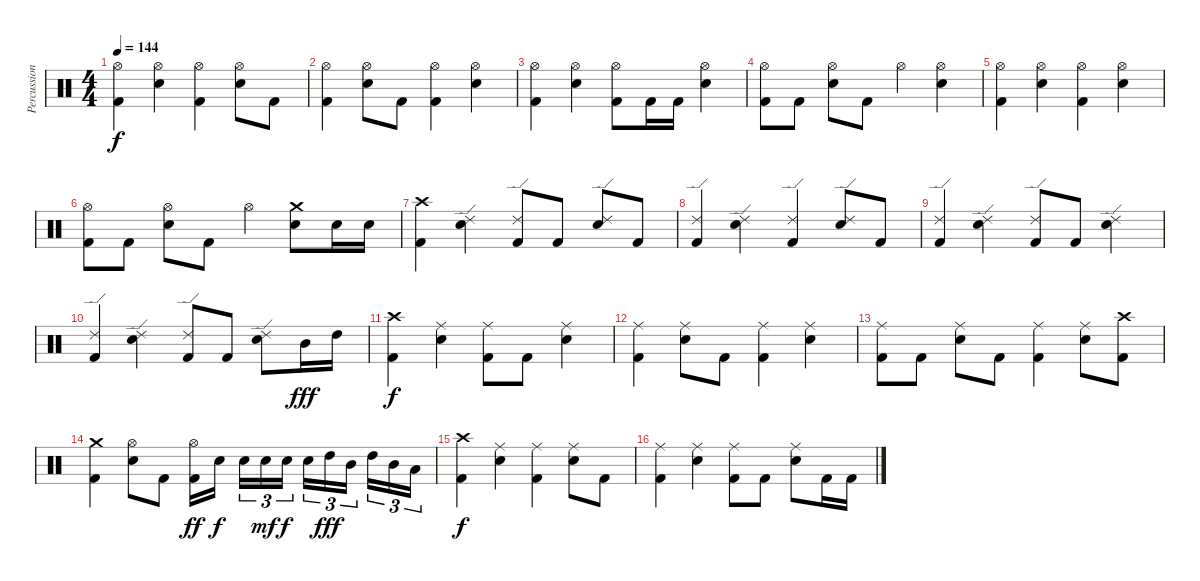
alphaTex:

\track ("Percussion" "Percussion") {instrument percussion}
\staff {score}
\articulation defaults
\ts (4 4)
\tempo 144
\clef neutral
\ks c
("Hi-Hat (open)" "Kick (hit) 2").4{dy f} ("Hi-Hat (open)" "Snare (hit) 2").4 ("Hi-Hat (open)" "Kick (hit) 2").4 ("Hi-Hat (open)" "Snare (hit) 2").8 "Kick (hit) 2".8 |
("Hi-Hat (open)" "Kick (hit) 2").4 ("Hi-Hat (open)" "Snare (hit) 2").8 "Kick (hit) 2".8 ("Hi-Hat (open)" "Kick (hit) 2").4 ("Hi-Hat (open)" "Snare (hit) 2").4 |
("Hi-Hat (open)" "Kick (hit) 2").4 ("Hi-Hat (open)" "Snare (hit) 2").4 ("Hi-Hat (open)" "Kick (hit) 2").8 "Kick (hit) 2".16 "Kick (hit) 2".16 ("Hi-Hat (open)" "Snare (hit) 2").4 |
("Hi-Hat (open)" "Kick (hit) 2").8 "Kick (hit) 2".8 ("Hi-Hat (open)" "Snare (hit) 2").8 "Kick (hit) 2".8 "Hi-Hat (open)".4 ("Hi-Hat (open)" "Snare (hit) 2").4 |
("Hi-Hat (open)" "Kick (hit) 2").4 ("Hi-Hat (open)" "Snare (hit) 2").4 ("Hi-Hat (open)" "Kick (hit) 2").4 ("Hi-Hat (open)" "Snare (hit) 2").4 |
("Hi-Hat (open)" "Kick (hit) 2").8 "Kick (hit) 2".8 ("Hi-Hat (open)" "Snare (hit) 2").8 "Kick (hit) 2".8 "Hi-Hat (open)".4 ("Crash medium (hit)" "Snare (hit) 2").8 "Snare (hit) 2".16 "Snare (hit) 2".16 |
\section ("" "")
("Crash high (hit)" "Kick (hit) 2").4 ("Ride (edge) 2" "Snare (hit) 2").4 ("Ride (edge) 2" "Kick (hit) 2").8 "Kick (hit) 2".8 ("Ride (edge) 2" "Snare (hit) 2").8 "Kick (hit) 2".8 |
("Ride (edge) 2" "Kick (hit) 2").4 ("Ride (edge) 2" "Snare (hit) 2").4 ("Ride (edge) 2" "Kick (hit) 2").4 ("Ride (edge) 2" "Snare (hit) 2").8 "Kick (hit) 2".8 |
("Ride (edge) 2" "Kick (hit) 2").4 ("Ride (edge) 2" "Snare (hit) 2").4 ("Ride (edge) 2" "Kick (hit) 2").8 "Kick (hit) 2".8 ("Ride (edge) 2" "Snare (hit) 2").4 |
("Ride (edge) 2" "Kick (hit) 2").4 ("Ride (edge) 2" "Snare (hit) 2").4 ("Ride (edge) 2" "Kick (hit) 2").8 "Kick (hit) 2".8 ("Ride (edge) 2" "Snare (hit) 2").8 "Mid Tom (hit)".16{dy fff} "High Tom (hit)".16 |
("Crash high (hit)" "Kick (hit) 2").4{dy f} ("Ride (middle)" "Snare (hit) 2").4 ("Ride (middle)" "Kick (hit) 2").8 "Kick (hit) 2".8 ("Ride (middle)" "Snare (hit) 2").4 |
("Ride (middle)" "Kick (hit) 2").4 ("Ride (middle)" "Snare (hit) 2").8 "Kick (hit) 2".8 ("Ride (middle)" "Kick (hit) 2").4 ("Ride (middle)" "Snare (hit) 2").4 |
("Ride (middle)" "Kick (hit) 2").8 "Kick (hit) 2".8 ("Ride (middle)" "Snare (hit) 2").8 "Kick (hit) 2".8 ("Ride (middle)" "Kick (hit) 2").4 ("Ride (middle)" "Snare (hit) 2").8 ("Crash high (hit)" "Kick (hit) 2").8 |
("Crash medium (hit)" "Kick (hit) 2").4 ("Hi-Hat (open)" "Snare (hit) 2").8 "Kick (hit) 2".8 ("Hi-Hat (open)" "Kick (hit) 2").16{dy ff} "Snare (hit) 2".16{dy f} "Snare (hit) 2".16{tu (3 2)} "Snare (hit) 2".16{tu (3 2) dy mf} "Snare (hit) 2".16{tu (3 2) dy f} "Snare (hit) 2".16{tu (3 2)} "High Tom (hit)".16{tu (3 2) dy fff} "Mid Tom (hit)".16{tu (3 2)} "High Tom (hit)".16{tu (3 2)} "Mid Tom (hit)".16{tu (3 2)} "Low Tom (hit)".16{tu (3 2)} |
\section ("" "")
("Crash high (hit)" "Kick (hit) 2").4{dy f} ("Ride (middle)" "Snare (hit) 2").4 ("Ride (middle)" "Kick (hit) 2").4 ("Ride (middle)" "Snare (hit) 2").8 "Kick (hit) 2".8 |
("Ride (middle)" "Kick (hit) 2").4 ("Ride (middle)" "Snare (hit) 2").4 ("Ride (middle)" "Kick (hit) 2").8 "Kick (hit) 2".8 ("Ride (middle)" "Snare (hit) 2").8 "Kick (hit) 2".16 "Kick (hit) 2".16
